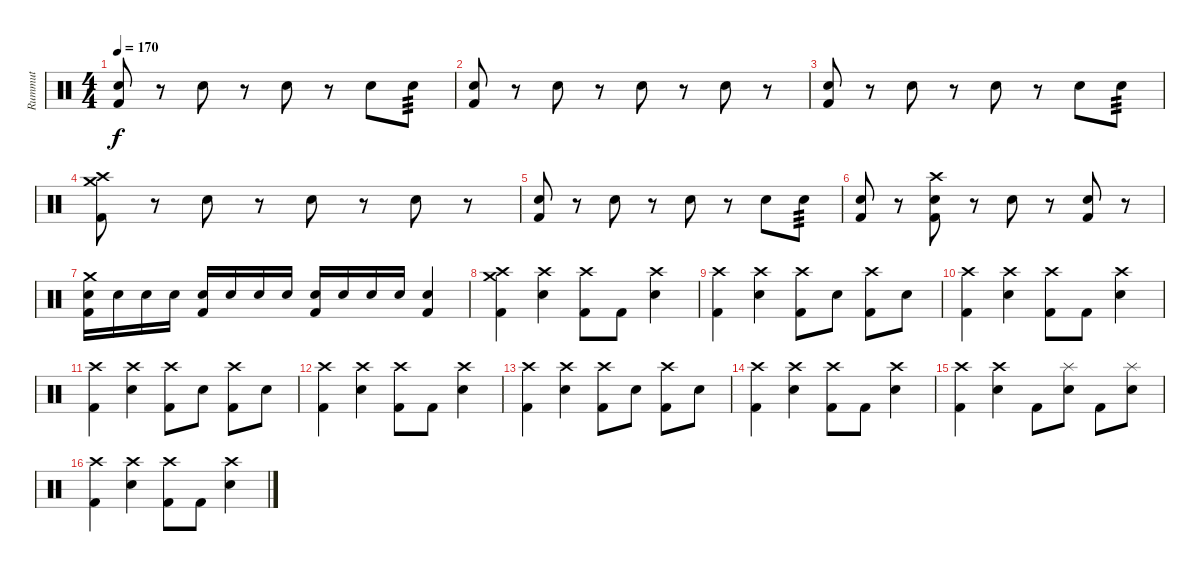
\track ("Rummut" "Rummut") {instrument percussion}
\staff {score}
\articulation defaults
\ts (4 4)
\tempo 170
\clef neutral
\ks c
("Electric Snare (hit)" "Kick (hit) 2").8{dy f} r.8 "Electric Snare (hit)".8 r.8 "Electric Snare (hit)".8 r.8 "Electric Snare (hit)".8 "Electric Snare (hit)".8{tp 3} |
("Electric Snare (hit)" "Kick (hit) 2").8 r.8 "Electric Snare (hit)".8 r.8 "Electric Snare (hit)".8 r.8 "Electric Snare (hit)".8 r.8 |
("Electric Snare (hit)" "Kick (hit) 2").8 r.8 "Electric Snare (hit)".8 r.8 "Electric Snare (hit)".8 r.8 "Electric Snare (hit)".8 "Electric Snare (hit)".8{tp 3} |
("Crash high (hit)" "Crash medium (hit)" "Kick (hit) 2").8 r.8 "Electric Snare (hit)".8 r.8 "Electric Snare (hit)".8 r.8 "Electric Snare (hit)".8 r.8 |
("Electric Snare (hit)" "Kick (hit) 2").8 r.8 "Electric Snare (hit)".8 r.8 "Electric Snare (hit)".8 r.8 "Electric Snare (hit)".8 "Electric Snare (hit)".8{tp 3} |
("Electric Snare (hit)" "Kick (hit) 2").8 r.8 ("Crash high (hit)" "Electric Snare (hit)" "Kick (hit) 2").8 r.8 "Electric Snare (hit)".8 r.8 ("Electric Snare (hit)" "Kick (hit) 2").8 r.8 |
("Crash medium (hit)" "Electric Snare (hit)" "Kick (hit) 2").16 "Electric Snare (hit)".16 "Electric Snare (hit)".16 "Electric Snare (hit)".16 ("Electric Snare (hit)" "Kick (hit) 2").16 "Electric Snare (hit)".16 "Electric Snare (hit)".16 "Electric Snare (hit)".16 ("Electric Snare (hit)" "Kick (hit) 2").16 "Electric Snare (hit)".16 "Electric Snare (hit)".16 "Electric Snare (hit)".16 ("Electric Snare (hit)" "Kick (hit) 2").4 |
("Crash high (hit)" "Crash medium (hit)" "Kick (hit) 2").4 ("Crash high (hit)" "Electric Snare (hit)").4 ("Crash high (hit)" "Kick (hit) 2").8 "Kick (hit) 2".8 ("Crash high (hit)" "Electric Snare (hit)").4 |
("Crash high (hit)" "Kick (hit) 2").4 ("Crash high (hit)" "Electric Snare (hit)").4 ("Crash high (hit)" "Kick (hit) 2").8 "Electric Snare (hit)".8 ("Crash high (hit)" "Kick (hit) 2").8 "Electric Snare (hit)".8 |
("Crash high (hit)" "Kick (hit) 2").4 ("Crash high (hit)" "Electric Snare (hit)").4 ("Crash high (hit)" "Kick (hit) 2").8 "Kick (hit) 2".8 ("Crash high (hit)" "Electric Snare (hit)").4 |
("Crash high (hit)" "Kick (hit) 2").4 ("Crash high (hit)" "Electric Snare (hit)").4 ("Crash high (hit)" "Kick (hit) 2").8 "Electric Snare (hit)".8 ("Crash high (hit)" "Kick (hit) 2").8 "Electric Snare (hit)".8 |
("Crash high (hit)" "Kick (hit) 2").4 ("Crash high (hit)" "Electric Snare (hit)").4 ("Crash high (hit)" "Kick (hit) 2").8 "Kick (hit) 2".8 ("Crash high (hit)" "Electric Snare (hit)").4 |
("Crash high (hit)" "Kick (hit) 2").4 ("Crash high (hit)" "Electric Snare (hit)").4 ("Crash high (hit)" "Kick (hit) 2").8 "Electric Snare (hit)".8 ("Crash high (hit)" "Kick (hit) 2").8 "Electric Snare (hit)".8 |
("Crash high (hit)" "Kick (hit) 2").4 ("Crash high (hit)" "Electric Snare (hit)").4 ("Crash high (hit)" "Kick (hit) 2").8 "Kick (hit) 2".8 ("Crash high (hit)" "Electric Snare (hit)").4 |
("Crash high (hit)" "Kick (hit) 2").4 ("Crash high (hit)" "Electric Snare (hit)").4 "Kick (hit) 2".8 ("Splash (hit)" "Electric Snare (hit)").8 "Kick (hit) 2".8 ("Splash (hit)" "Electric Snare (hit)").8 |
("Crash high (hit)" "Kick (hit) 2").4 ("Crash high (hit)" "Electric Snare (hit)").4 ("Crash high (hit)" "Kick (hit) 2").8 "Kick (hit) 2".8 ("Crash high (hit)" "Electric Snare (hit)").4
